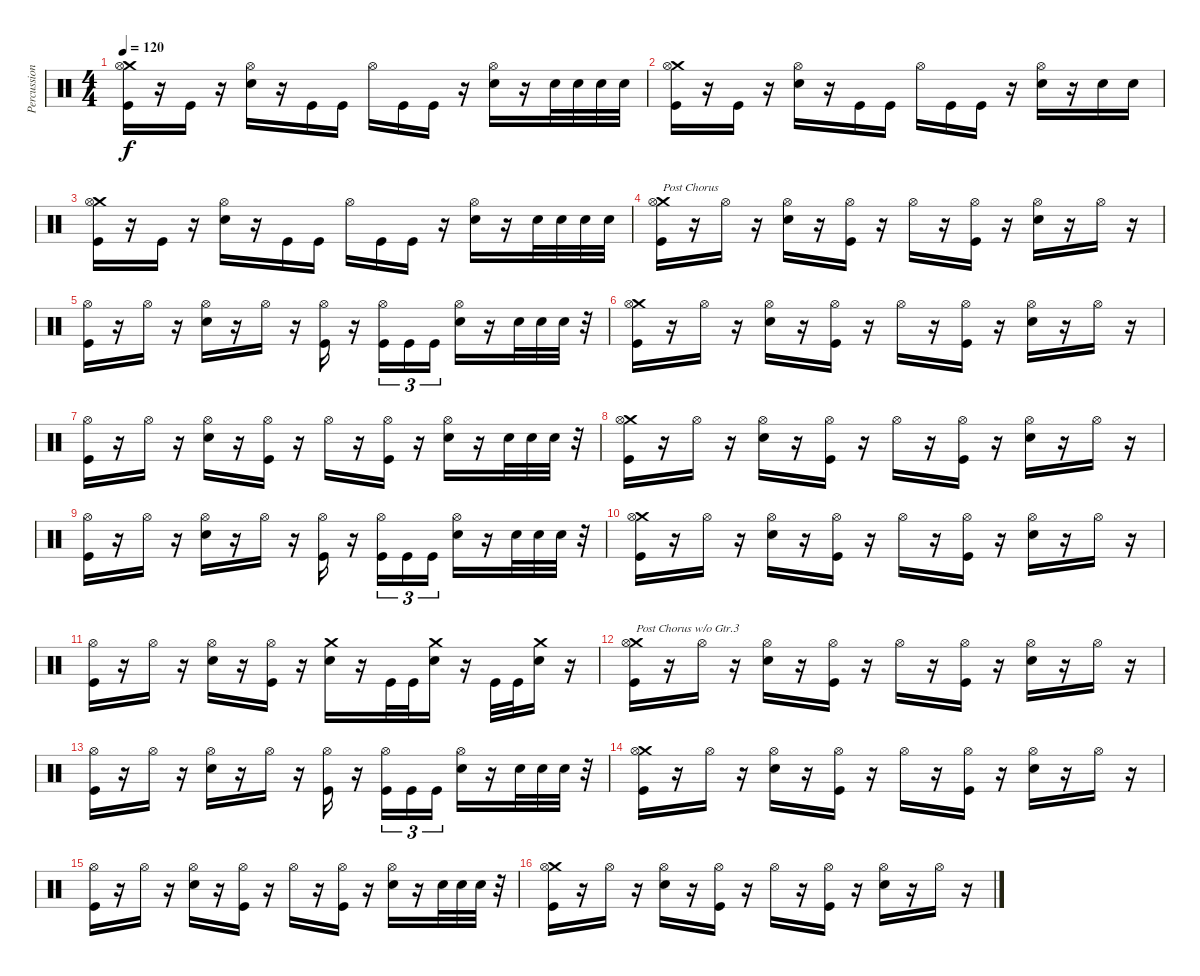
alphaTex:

\track ("Percussion" "Percussion") {instrument percussion}
\staff {score}
\articulation defaults
\ts (4 4)
\tempo 120
\clef neutral
\ks c
("Crash medium (hit)" "Hi-Hat (open)" "Kick (hit)").16{dy f} r.16 "Kick (hit)".16 r.16 ("Hi-Hat (open)" "Electric Snare (hit)").16 r.16 "Kick (hit)".16 "Kick (hit)".16 "Hi-Hat (open)".16 "Kick (hit)".16 "Kick (hit)".16 r.16 ("Hi-Hat (open)" "Electric Snare (hit)").16 r.16 "Electric Snare (hit)".32 "Electric Snare (hit)".32 "Electric Snare (hit)".32 "Electric Snare (hit)".32 |
("Crash medium (hit)" "Hi-Hat (open)" "Kick (hit)").16 r.16 "Kick (hit)".16 r.16 ("Hi-Hat (open)" "Electric Snare (hit)").16 r.16 "Kick (hit)".16 "Kick (hit)".16 "Hi-Hat (open)".16 "Kick (hit)".16 "Kick (hit)".16 r.16 ("Hi-Hat (open)" "Electric Snare (hit)").16 r.16 "Electric Snare (hit)".16 "Electric Snare (hit)".16 |
("Crash medium (hit)" "Hi-Hat (open)" "Kick (hit)").16 r.16 "Kick (hit)".16 r.16 ("Hi-Hat (open)" "Electric Snare (hit)").16 r.16 "Kick (hit)".16 "Kick (hit)".16 "Hi-Hat (open)".16 "Kick (hit)".16 "Kick (hit)".16 r.16 ("Hi-Hat (open)" "Electric Snare (hit)").16 r.16 "Electric Snare (hit)".32 "Electric Snare (hit)".32 "Electric Snare (hit)".32 "Electric Snare (hit)".32 |
("Crash medium (hit)" "Hi-Hat (open)" "Kick (hit)").16{txt "Post Chorus"} r.16 "Hi-Hat (open)".16 r.16 ("Hi-Hat (open)" "Electric Snare (hit)").16 r.16 ("Hi-Hat (open)" "Kick (hit)").16 r.16 "Hi-Hat (open)".16 r.16 ("Hi-Hat (open)" "Kick (hit)").16 r.16 ("Hi-Hat (open)" "Electric Snare (hit)").16 r.16 "Hi-Hat (open)".16 r.16 |
("Hi-Hat (open)" "Kick (hit)").16 r.16 "Hi-Hat (open)".16 r.16 ("Hi-Hat (open)" "Electric Snare (hit)").16 r.16 "Hi-Hat (open)".16 r.16 ("Hi-Hat (open)" "Kick (hit)").16 r.16 ("Hi-Hat (open)" "Kick (hit)").16{tu (3 2)} "Kick (hit)".16{tu (3 2)} "Kick (hit)".16{tu (3 2)} ("Hi-Hat (open)" "Electric Snare (hit)").16 r.16 "Electric Snare (hit)".32 "Electric Snare (hit)".32 "Electric Snare (hit)".32 r.32 |
("Crash medium (hit)" "Hi-Hat (open)" "Kick (hit)").16 r.16 "Hi-Hat (open)".16 r.16 ("Hi-Hat (open)" "Electric Snare (hit)").16 r.16 ("Hi-Hat (open)" "Kick (hit)").16 r.16 "Hi-Hat (open)".16 r.16 ("Hi-Hat (open)" "Kick (hit)").16 r.16 ("Hi-Hat (open)" "Electric Snare (hit)").16 r.16 "Hi-Hat (open)".16 r.16 |
("Hi-Hat (open)" "Kick (hit)").16 r.16 "Hi-Hat (open)".16 r.16 ("Hi-Hat (open)" "Electric Snare (hit)").16 r.16 ("Hi-Hat (open)" "Kick (hit)").16 r.16 "Hi-Hat (open)".16 r.16 ("Hi-Hat (open)" "Kick (hit)").16 r.16 ("Hi-Hat (open)" "Electric Snare (hit)").16 r.16 "Electric Snare (hit)".32 "Electric Snare (hit)".32 "Electric Snare (hit)".32 r.32 |
("Crash medium (hit)" "Hi-Hat (open)" "Kick (hit)").16 r.16 "Hi-Hat (open)".16 r.16 ("Hi-Hat (open)" "Electric Snare (hit)").16 r.16 ("Hi-Hat (open)" "Kick (hit)").16 r.16 "Hi-Hat (open)".16 r.16 ("Hi-Hat (open)" "Kick (hit)").16 r.16 ("Hi-Hat (open)" "Electric Snare (hit)").16 r.16 "Hi-Hat (open)".16 r.16 |
("Hi-Hat (open)" "Kick (hit)").16 r.16 "Hi-Hat (open)".16 r.16 ("Hi-Hat (open)" "Electric Snare (hit)").16 r.16 "Hi-Hat (open)".16 r.16 ("Hi-Hat (open)" "Kick (hit)").16 r.16 ("Hi-Hat (open)" "Kick (hit)").16{tu (3 2)} "Kick (hit)".16{tu (3 2)} "Kick (hit)".16{tu (3 2)} ("Hi-Hat (open)" "Electric Snare (hit)").16 r.16 "Electric Snare (hit)".32 "Electric Snare (hit)".32 "Electric Snare (hit)".32 r.32 |
("Crash medium (hit)" "Hi-Hat (open)" "Kick (hit)").16 r.16 "Hi-Hat (open)".16 r.16 ("Hi-Hat (open)" "Electric Snare (hit)").16 r.16 ("Hi-Hat (open)" "Kick (hit)").16 r.16 "Hi-Hat (open)".16 r.16 ("Hi-Hat (open)" "Kick (hit)").16 r.16 ("Hi-Hat (open)" "Electric Snare (hit)").16 r.16 "Hi-Hat (open)".16 r.16 |
("Hi-Hat (open)" "Kick (hit)").16 r.16 "Hi-Hat (open)".16 r.16 ("Hi-Hat (open)" "Electric Snare (hit)").16 r.16 ("Hi-Hat (open)" "Kick (hit)").16 r.16 ("Crash medium (hit)" "Electric Snare (hit)").16 r.16 "Kick (hit)".32 "Kick (hit)".32 ("Crash medium (hit)" "Electric Snare (hit)").16 r.16 "Kick (hit)".32 "Kick (hit)".32 ("Crash medium (hit)" "Electric Snare (hit)").16 r.16 |
("Crash medium (hit)" "Hi-Hat (open)" "Kick (hit)").16{txt "Post Chorus w/o Gtr.3"} r.16 "Hi-Hat (open)".16 r.16 ("Hi-Hat (open)" "Electric Snare (hit)").16 r.16 ("Hi-Hat (open)" "Kick (hit)").16 r.16 "Hi-Hat (open)".16 r.16 ("Hi-Hat (open)" "Kick (hit)").16 r.16 ("Hi-Hat (open)" "Electric Snare (hit)").16 r.16 "Hi-Hat (open)".16 r.16 |
("Hi-Hat (open)" "Kick (hit)").16 r.16 "Hi-Hat (open)".16 r.16 ("Hi-Hat (open)" "Electric Snare (hit)").16 r.16 "Hi-Hat (open)".16 r.16 ("Hi-Hat (open)" "Kick (hit)").16 r.16 ("Hi-Hat (open)" "Kick (hit)").16{tu (3 2)} "Kick (hit)".16{tu (3 2)} "Kick (hit)".16{tu (3 2)} ("Hi-Hat (open)" "Electric Snare (hit)").16 r.16 "Electric Snare (hit)".32 "Electric Snare (hit)".32 "Electric Snare (hit)".32 r.32 |
("Crash medium (hit)" "Hi-Hat (open)" "Kick (hit)").16 r.16 "Hi-Hat (open)".16 r.16 ("Hi-Hat (open)" "Electric Snare (hit)").16 r.16 ("Hi-Hat (open)" "Kick (hit)").16 r.16 "Hi-Hat (open)".16 r.16 ("Hi-Hat (open)" "Kick (hit)").16 r.16 ("Hi-Hat (open)" "Electric Snare (hit)").16 r.16 "Hi-Hat (open)".16 r.16 |
("Hi-Hat (open)" "Kick (hit)").16 r.16 "Hi-Hat (open)".16 r.16 ("Hi-Hat (open)" "Electric Snare (hit)").16 r.16 ("Hi-Hat (open)" "Kick (hit)").16 r.16 "Hi-Hat (open)".16 r.16 ("Hi-Hat (open)" "Kick (hit)").16 r.16 ("Hi-Hat (open)" "Electric Snare (hit)").16 r.16 "Electric Snare (hit)".32 "Electric Snare (hit)".32 "Electric Snare (hit)".32 r.32 |
("Crash medium (hit)" "Hi-Hat (open)" "Kick (hit)").16 r.16 "Hi-Hat (open)".16 r.16 ("Hi-Hat (open)" "Electric Snare (hit)").16 r.16 ("Hi-Hat (open)" "Kick (hit)").16 r.16 "Hi-Hat (open)".16 r.16 ("Hi-Hat (open)" "Kick (hit)").16 r.16 ("Hi-Hat (open)" "Electric Snare (hit)").16 r.16 "Hi-Hat (open)".16 r.16
